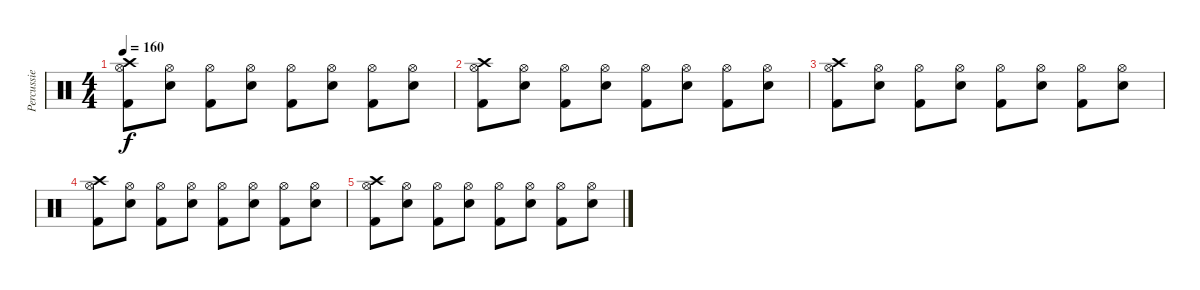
\track ("Percussie" "Percussie") {instrument percussion}
\staff {score}
\articulation defaults
\ts (4 4)
\tempo 160
\clef neutral
\ks c
("Kick (hit) 2" "Crash high (hit)" "Hi-Hat (open)").8{dy f} ("Snare (hit) 2" "Hi-Hat (open)").8 ("Kick (hit) 2" "Hi-Hat (open)").8 ("Snare (hit) 2" "Hi-Hat (open)").8 ("Kick (hit) 2" "Hi-Hat (open)").8 ("Snare (hit) 2" "Hi-Hat (open)").8 ("Kick (hit) 2" "Hi-Hat (open)").8 ("Snare (hit) 2" "Hi-Hat (open)").8 |
("Kick (hit) 2" "Crash high (hit)" "Hi-Hat (open)").8 ("Snare (hit) 2" "Hi-Hat (open)").8 ("Kick (hit) 2" "Hi-Hat (open)").8 ("Snare (hit) 2" "Hi-Hat (open)").8 ("Kick (hit) 2" "Hi-Hat (open)").8 ("Snare (hit) 2" "Hi-Hat (open)").8 ("Kick (hit) 2" "Hi-Hat (open)").8 ("Snare (hit) 2" "Hi-Hat (open)").8 |
("Kick (hit) 2" "Crash high (hit)" "Hi-Hat (open)").8 ("Snare (hit) 2" "Hi-Hat (open)").8 ("Kick (hit) 2" "Hi-Hat (open)").8 ("Snare (hit) 2" "Hi-Hat (open)").8 ("Kick (hit) 2" "Hi-Hat (open)").8 ("Snare (hit) 2" "Hi-Hat (open)").8 ("Kick (hit) 2" "Hi-Hat (open)").8 ("Snare (hit) 2" "Hi-Hat (open)").8 |
("Kick (hit) 2" "Crash high (hit)" "Hi-Hat (open)").8 ("Snare (hit) 2" "Hi-Hat (open)").8 ("Kick (hit) 2" "Hi-Hat (open)").8 ("Snare (hit) 2" "Hi-Hat (open)").8 ("Kick (hit) 2" "Hi-Hat (open)").8 ("Snare (hit) 2" "Hi-Hat (open)").8 ("Kick (hit) 2" "Hi-Hat (open)").8 ("Snare (hit) 2" "Hi-Hat (open)").8 |
("Kick (hit) 2" "Crash high (hit)" "Hi-Hat (open)").8 ("Snare (hit) 2" "Hi-Hat (open)").8 ("Kick (hit) 2" "Hi-Hat (open)").8 ("Snare (hit) 2" "Hi-Hat (open)").8 ("Kick (hit) 2" "Hi-Hat (open)").8 ("Snare (hit) 2" "Hi-Hat (open)").8 ("Kick (hit) 2" "Hi-Hat (open)").8 ("Snare (hit) 2" "Hi-Hat (open)").8
